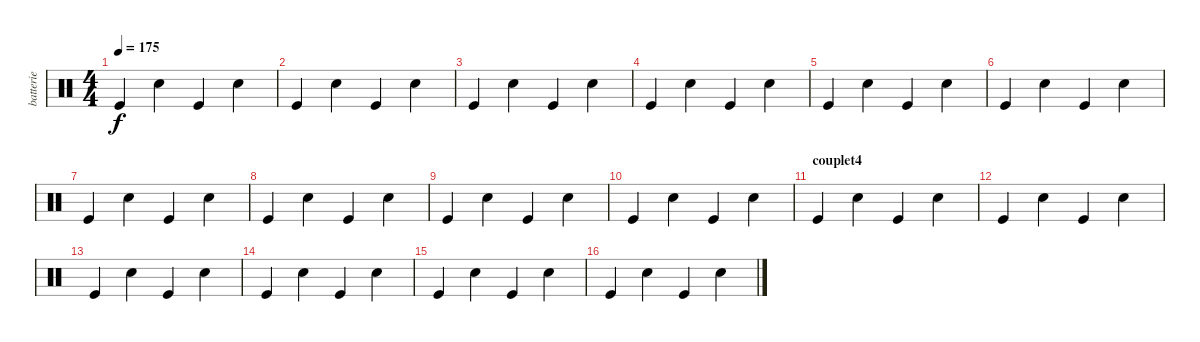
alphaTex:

\track ("batterie" "batterie") {instrument percussion}
\staff {score}
\articulation defaults
\ts (4 4)
\tempo 175
\clef neutral
\ks c "Kick (hit)".4{dy f} "Snare (hit) 2".4 "Kick (hit)".4 "Snare (hit) 2".4
|
"Kick (hit)".4 "Snare (hit) 2".4 "Kick (hit)".4 "Snare (hit) 2".4 |
"Kick (hit)".4 "Snare (hit) 2".4 "Kick (hit)".4 "Snare (hit) 2".4 |
"Kick (hit)".4 "Snare (hit) 2".4 "Kick (hit)".4 "Snare (hit) 2".4 |
"Kick (hit)".4 "Snare (hit) 2".4 "Kick (hit)".4 "Snare (hit) 2".4 |
"Kick (hit)".4 "Snare (hit) 2".4 "Kick (hit)".4 "Snare (hit) 2".4 |
"Kick (hit)".4 "Snare (hit) 2".4 "Kick (hit)".4 "Snare (hit) 2".4 |
"Kick (hit)".4 "Snare (hit) 2".4 "Kick (hit)".4 "Snare (hit) 2".4 |
"Kick (hit)".4 "Snare (hit) 2".4 "Kick (hit)".4 "Snare (hit) 2".4 |
"Kick (hit)".4 "Snare (hit) 2".4 "Kick (hit)".4 "Snare (hit) 2".4 |
\section ("" "couplet4")
"Kick (hit)".4 "Snare (hit) 2".4 "Kick (hit)".4 "Snare (hit) 2".4 |
"Kick (hit)".4 "Snare (hit) 2".4 "Kick (hit)".4 "Snare (hit) 2".4 |
"Kick (hit)".4 "Snare (hit) 2".4 "Kick (hit)".4 "Snare (hit) 2".4 |
"Kick (hit)".4 "Snare (hit) 2".4 "Kick (hit)".4 "Snare (hit) 2".4 |
"Kick (hit)".4 "Snare (hit) 2".4 "Kick (hit)".4 "Snare (hit) 2".4 |
"Kick (hit)".4 "Snare (hit) 2".4 "Kick (hit)".4 "Snare (hit) 2".4
